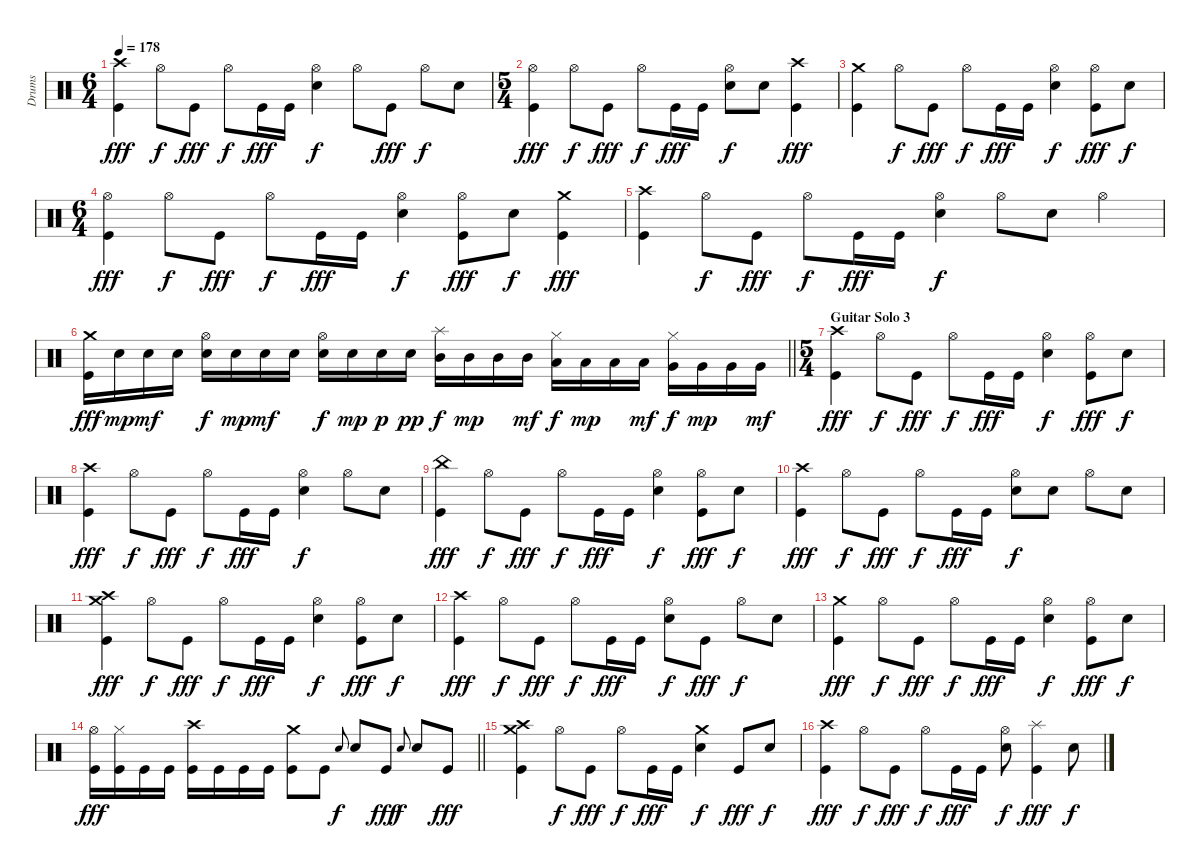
\track ("Drums" "Drums") {instrument percussion}
\staff {score}
\articulation defaults
\ts (6 4)
\tempo 178
\clef neutral
\ks c
("Crash high (hit)" "Kick (hit)").4{dy fff} "Hi-Hat (open)".8{dy f} "Kick (hit)".8{dy fff} "Hi-Hat (open)".8{dy f} "Kick (hit)".16{dy fff} "Kick (hit)".16 ("Hi-Hat (open)" "Electric Snare (hit)").4{dy f} "Hi-Hat (open)".8 "Kick (hit)".8{dy fff} "Hi-Hat (open)".8{dy f} "Electric Snare (hit)".8 |
\ts (5 4)
("Hi-Hat (open)" "Kick (hit)").4{dy fff} "Hi-Hat (open)".8{dy f} "Kick (hit)".8{dy fff} "Hi-Hat (open)".8{dy f} "Kick (hit)".16{dy fff} "Kick (hit)".16 ("Hi-Hat (open)" "Electric Snare (hit)").8{dy f} "Electric Snare (hit)".8 ("Crash high (hit)" "Kick (hit)").4{dy fff} |
("Crash medium (hit)" "Kick (hit)").4 "Hi-Hat (open)".8{dy f} "Kick (hit)".8{dy fff} "Hi-Hat (open)".8{dy f} "Kick (hit)".16{dy fff} "Kick (hit)".16 ("Hi-Hat (open)" "Electric Snare (hit)").4{dy f} ("Hi-Hat (open)" "Kick (hit)").8{dy fff} "Electric Snare (hit)".8{dy f} |
\ts (6 4)
("Hi-Hat (open)" "Kick (hit)").4{dy fff} "Hi-Hat (open)".8{dy f} "Kick (hit)".8{dy fff} "Hi-Hat (open)".8{dy f} "Kick (hit)".16{dy fff} "Kick (hit)".16 ("Hi-Hat (open)" "Electric Snare (hit)").4{dy f} ("Hi-Hat (open)" "Kick (hit)").8{dy fff} "Electric Snare (hit)".8{dy f} ("Crash medium (hit)" "Kick (hit)").4{dy fff} |
("Crash high (hit)" "Kick (hit)").4 "Hi-Hat (open)".8{dy f} "Kick (hit)".8{dy fff} "Hi-Hat (open)".8{dy f} "Kick (hit)".16{dy fff} "Kick (hit)".16 ("Hi-Hat (open)" "Electric Snare (hit)").4{dy f} "Hi-Hat (open)".8 "Electric Snare (hit)".8 "Hi-Hat (open)".4 |
\barLineRight lightlight
("Crash medium (hit)" "Kick (hit)").16{dy fff} "Electric Snare (hit)".16{dy mp} "Electric Snare (hit)".16{dy mf} "Electric Snare (hit)".16 ("Hi-Hat (open)" "Electric Snare (hit)").16{dy f} "Electric Snare (hit)".16{dy mp} "Electric Snare (hit)".16{dy mf} "Electric Snare (hit)".16 ("Hi-Hat (open)" "Electric Snare (hit)").16{dy f} "Electric Snare (hit)".16{dy mp} "Electric Snare (hit)".16{dy p} "Electric Snare (hit)".16{dy pp} ("Splash (hit)" "Mid Tom (hit)").16{dy f} "Mid Tom (hit)".16{dy mp} "Mid Tom (hit)".16 "Mid Tom (hit)".16{dy mf} ("Hi-Hat (closed)" "Low Tom (hit)").16{dy f} "Low Tom (hit)".16{dy mp} "Low Tom (hit)".16 "Low Tom (hit)".16{dy mf} ("Hi-Hat (closed)" "Very Low Tom (hit)").16{dy f} "Very Low Tom (hit)".16{dy mp} "Very Low Tom (hit)".16 "Very Low Tom (hit)".16{dy mf} |
\ts (5 4)
\section ("" "Guitar Solo 3")
("Crash high (hit)" "Kick (hit)").4{dy fff} "Hi-Hat (open)".8{dy f} "Kick (hit)".8{dy fff} "Hi-Hat (open)".8{dy f} "Kick (hit)".16{dy fff} "Kick (hit)".16 ("Hi-Hat (open)" "Electric Snare (hit)").4{dy f} ("Hi-Hat (open)" "Kick (hit)").8{dy fff} "Electric Snare (hit)".8{dy f} |
("Crash high (hit)" "Kick (hit)").4{dy fff} "Hi-Hat (open)".8{dy f} "Kick (hit)".8{dy fff} "Hi-Hat (open)".8{dy f} "Kick (hit)".16{dy fff} "Kick (hit)".16 ("Hi-Hat (open)" "Electric Snare (hit)").4{dy f} "Hi-Hat (open)".8 "Electric Snare (hit)".8 |
("China (hit)" "Kick (hit)").4{dy fff} "Hi-Hat (open)".8{dy f} "Kick (hit)".8{dy fff} "Hi-Hat (open)".8{dy f} "Kick (hit)".16{dy fff} "Kick (hit)".16 ("Hi-Hat (open)" "Electric Snare (hit)").4{dy f} ("Hi-Hat (open)" "Kick (hit)").8{dy fff} "Electric Snare (hit)".8{dy f} |
("Crash high (hit)" "Kick (hit)").4{dy fff} "Hi-Hat (open)".8{dy f} "Kick (hit)".8{dy fff} "Hi-Hat (open)".8{dy f} "Kick (hit)".16{dy fff} "Kick (hit)".16 ("Hi-Hat (open)" "Electric Snare (hit)").8{dy f} "Electric Snare (hit)".8 "Hi-Hat (open)".8 "Electric Snare (hit)".8 |
("Crash medium (hit)" "Crash high (hit)" "Kick (hit)").4{dy fff} "Hi-Hat (open)".8{dy f} "Kick (hit)".8{dy fff} "Hi-Hat (open)".8{dy f} "Kick (hit)".16{dy fff} "Kick (hit)".16 ("Hi-Hat (open)" "Electric Snare (hit)").4{dy f} ("Hi-Hat (open)" "Kick (hit)").8{dy fff} "Electric Snare (hit)".8{dy f} |
("Crash high (hit)" "Kick (hit)").4{dy fff} "Hi-Hat (open)".8{dy f} "Kick (hit)".8{dy fff} "Hi-Hat (open)".8{dy f} "Kick (hit)".16{dy fff} "Kick (hit)".16 ("Hi-Hat (open)" "Electric Snare (hit)").8{dy f} "Kick (hit)".8{dy fff} "Hi-Hat (open)".8{dy f} "Electric Snare (hit)".8 |
("Crash medium (hit)" "Kick (hit)").4{dy fff} "Hi-Hat (open)".8{dy f} "Kick (hit)".8{dy fff} "Hi-Hat (open)".8{dy f} "Kick (hit)".16{dy fff} "Kick (hit)".16 ("Hi-Hat (open)" "Electric Snare (hit)").4{dy f} ("Hi-Hat (open)" "Kick (hit)").8{dy fff} "Electric Snare (hit)".8{dy f} |
\barLineRight lightlight
("Hi-Hat (open)" "Kick (hit)").16{dy fff} ("Hi-Hat (closed)" "Kick (hit)").16 "Kick (hit)".16 "Kick (hit)".16 ("Crash high (hit)" "Kick (hit)").16 "Kick (hit)".16 "Kick (hit)".16 "Kick (hit)".16 ("Crash medium (hit)" "Kick (hit)").8 "Kick (hit)".8 "Electric Snare (hit)".8{gr onbeat dy f} "Electric Snare (hit)".8 "Kick (hit)".8{dy fff} "Electric Snare (hit)".8{gr onbeat dy f} "Electric Snare (hit)".8 "Kick (hit)".8{dy fff} |
("Crash high (hit)" "Crash medium (hit)" "Kick (hit)").4 "Hi-Hat (open)".8{dy f} "Kick (hit)".8{dy fff} "Hi-Hat (open)".8{dy f} "Kick (hit)".16{dy fff} "Kick (hit)".16 ("Crash medium (hit)" "Electric Snare (hit)").4{dy f} "Kick (hit)".8{dy fff} "Electric Snare (hit)".8{dy f} |
("Crash high (hit)" "Kick (hit)").4{dy fff} "Hi-Hat (open)".8{dy f} "Kick (hit)".8{dy fff} "Hi-Hat (open)".8{dy f} "Kick (hit)".16{dy fff} "Kick (hit)".16 ("Hi-Hat (open)" "Electric Snare (hit)").8{dy f} ("Splash (hit)" "Kick (hit)").4{dy fff} "Electric Snare (hit)".8{dy f}
